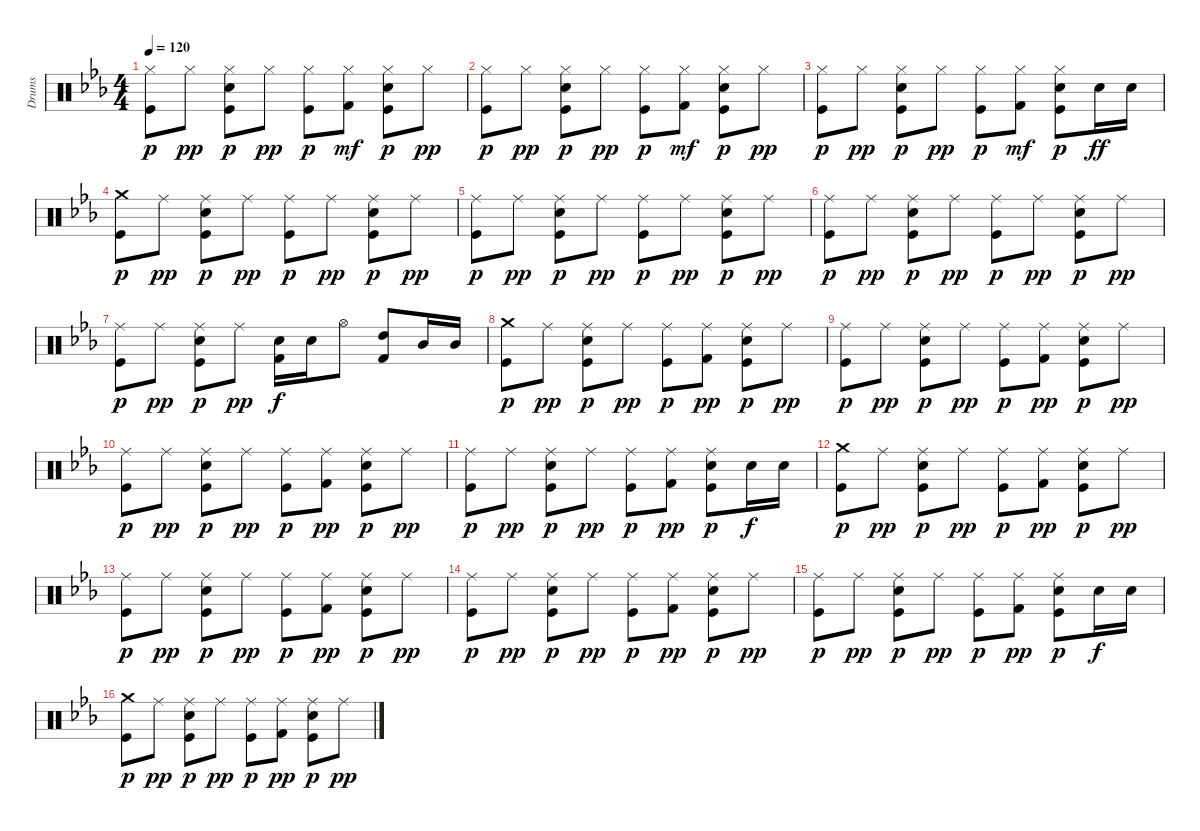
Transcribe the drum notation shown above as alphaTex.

\track ("Drums" "Drums") {instrument percussion}
\staff {score}
\articulation defaults
\ts (4 4)
\tempo 120
\clef neutral
\ks cminor
("Hi-Hat (closed)" "Kick (hit)").8{dy p} "Hi-Hat (closed)".8{dy pp} ("Hi-Hat (closed)" "Electric Snare (hit)" "Kick (hit)").8{dy p} "Hi-Hat (closed)".8{dy pp} ("Hi-Hat (closed)" "Kick (hit)").8{dy p} ("Hi-Hat (closed)" "Kick (hit) 2").8{dy mf} ("Hi-Hat (closed)" "Electric Snare (hit)" "Kick (hit)").8{dy p} "Hi-Hat (closed)".8{dy pp} |
("Hi-Hat (closed)" "Kick (hit)").8{dy p} "Hi-Hat (closed)".8{dy pp} ("Hi-Hat (closed)" "Electric Snare (hit)" "Kick (hit)").8{dy p} "Hi-Hat (closed)".8{dy pp} ("Hi-Hat (closed)" "Kick (hit)").8{dy p} ("Hi-Hat (closed)" "Kick (hit) 2").8{dy mf} ("Hi-Hat (closed)" "Electric Snare (hit)" "Kick (hit)").8{dy p} "Hi-Hat (closed)".8{dy pp} |
("Hi-Hat (closed)" "Kick (hit)").8{dy p} "Hi-Hat (closed)".8{dy pp} ("Hi-Hat (closed)" "Electric Snare (hit)" "Kick (hit)").8{dy p} "Hi-Hat (closed)".8{dy pp} ("Hi-Hat (closed)" "Kick (hit)").8{dy p} ("Hi-Hat (closed)" "Kick (hit) 2").8{dy mf} ("Hi-Hat (closed)" "Electric Snare (hit)" "Kick (hit)").8{dy p} "Electric Snare (hit)".16{dy ff} "Electric Snare (hit)".16 |
("Crash medium (hit)" "Kick (hit)").8{dy p} "Ride (middle)".8{dy pp} ("Ride (middle)" "Electric Snare (hit)" "Kick (hit)").8{dy p} "Ride (middle)".8{dy pp} ("Ride (middle)" "Kick (hit)").8{dy p} "Ride (middle)".8{dy pp} ("Ride (middle)" "Electric Snare (hit)" "Kick (hit)").8{dy p} "Ride (middle)".8{dy pp} |
("Ride (middle)" "Kick (hit)").8{dy p} "Ride (middle)".8{dy pp} ("Ride (middle)" "Electric Snare (hit)" "Kick (hit)").8{dy p} "Ride (middle)".8{dy pp} ("Ride (middle)" "Kick (hit)").8{dy p} "Ride (middle)".8{dy pp} ("Ride (middle)" "Electric Snare (hit)" "Kick (hit)").8{dy p} "Ride (middle)".8{dy pp} |
("Ride (middle)" "Kick (hit)").8{dy p} "Ride (middle)".8{dy pp} ("Ride (middle)" "Electric Snare (hit)" "Kick (hit)").8{dy p} "Ride (middle)".8{dy pp} ("Ride (middle)" "Kick (hit)").8{dy p} "Ride (middle)".8{dy pp} ("Ride (middle)" "Electric Snare (hit)" "Kick (hit)").8{dy p} "Ride (middle)".8{dy pp} |
("Ride (middle)" "Kick (hit)").8{dy p} "Ride (middle)".8{dy pp} ("Ride (middle)" "Electric Snare (hit)" "Kick (hit)").8{dy p} "Ride (middle)".8{dy pp} ("Electric Snare (hit)" "Kick (hit) 2").16{dy f} "Electric Snare (hit)".16 "Hi-Hat (open)".8 ("High Tom (hit)" "Kick (hit) 2").8 "Mid Tom (hit)".16 "Mid Tom (hit)".16 |
("Crash medium (hit)" "Kick (hit)").8{dy p} "Ride (middle)".8{dy pp} ("Ride (middle)" "Electric Snare (hit)" "Kick (hit)").8{dy p} "Ride (middle)".8{dy pp} ("Ride (middle)" "Kick (hit)").8{dy p} ("Kick (hit) 2" "Ride (middle)").8{dy pp} ("Ride (middle)" "Electric Snare (hit)" "Kick (hit)").8{dy p} "Ride (middle)".8{dy pp} |
("Ride (middle)" "Kick (hit)").8{dy p} "Ride (middle)".8{dy pp} ("Ride (middle)" "Electric Snare (hit)" "Kick (hit)").8{dy p} "Ride (middle)".8{dy pp} ("Ride (middle)" "Kick (hit)").8{dy p} ("Kick (hit) 2" "Ride (middle)").8{dy pp} ("Ride (middle)" "Electric Snare (hit)" "Kick (hit)").8{dy p} "Ride (middle)".8{dy pp} |
("Ride (middle)" "Kick (hit)").8{dy p} "Ride (middle)".8{dy pp} ("Ride (middle)" "Electric Snare (hit)" "Kick (hit)").8{dy p} "Ride (middle)".8{dy pp} ("Ride (middle)" "Kick (hit)").8{dy p} ("Kick (hit) 2" "Ride (middle)").8{dy pp} ("Ride (middle)" "Electric Snare (hit)" "Kick (hit)").8{dy p} "Ride (middle)".8{dy pp} |
("Ride (middle)" "Kick (hit)").8{dy p} "Ride (middle)".8{dy pp} ("Ride (middle)" "Electric Snare (hit)" "Kick (hit)").8{dy p} "Ride (middle)".8{dy pp} ("Ride (middle)" "Kick (hit)").8{dy p} ("Kick (hit) 2" "Ride (middle)").8{dy pp} ("Ride (middle)" "Electric Snare (hit)" "Kick (hit)").8{dy p} "Electric Snare (hit)".16{dy f} "Electric Snare (hit)".16 |
("Crash medium (hit)" "Kick (hit)").8{dy p} "Ride (middle)".8{dy pp} ("Ride (middle)" "Electric Snare (hit)" "Kick (hit)").8{dy p} "Ride (middle)".8{dy pp} ("Ride (middle)" "Kick (hit)").8{dy p} ("Kick (hit) 2" "Ride (middle)").8{dy pp} ("Ride (middle)" "Electric Snare (hit)" "Kick (hit)").8{dy p} "Ride (middle)".8{dy pp} |
("Ride (middle)" "Kick (hit)").8{dy p} "Ride (middle)".8{dy pp} ("Ride (middle)" "Electric Snare (hit)" "Kick (hit)").8{dy p} "Ride (middle)".8{dy pp} ("Ride (middle)" "Kick (hit)").8{dy p} ("Kick (hit) 2" "Ride (middle)").8{dy pp} ("Ride (middle)" "Electric Snare (hit)" "Kick (hit)").8{dy p} "Ride (middle)".8{dy pp} |
("Ride (middle)" "Kick (hit)").8{dy p} "Ride (middle)".8{dy pp} ("Ride (middle)" "Electric Snare (hit)" "Kick (hit)").8{dy p} "Ride (middle)".8{dy pp} ("Ride (middle)" "Kick (hit)").8{dy p} ("Kick (hit) 2" "Ride (middle)").8{dy pp} ("Ride (middle)" "Electric Snare (hit)" "Kick (hit)").8{dy p} "Ride (middle)".8{dy pp} |
("Ride (middle)" "Kick (hit)").8{dy p} "Ride (middle)".8{dy pp} ("Ride (middle)" "Electric Snare (hit)" "Kick (hit)").8{dy p} "Ride (middle)".8{dy pp} ("Ride (middle)" "Kick (hit)").8{dy p} ("Kick (hit) 2" "Ride (middle)").8{dy pp} ("Ride (middle)" "Electric Snare (hit)" "Kick (hit)").8{dy p} "Electric Snare (hit)".16{dy f} "Electric Snare (hit)".16 |
("Crash medium (hit)" "Kick (hit)").8{dy p} "Ride (middle)".8{dy pp} ("Ride (middle)" "Electric Snare (hit)" "Kick (hit)").8{dy p} "Ride (middle)".8{dy pp} ("Ride (middle)" "Kick (hit)").8{dy p} ("Kick (hit) 2" "Ride (middle)").8{dy pp} ("Ride (middle)" "Electric Snare (hit)" "Kick (hit)").8{dy p} "Ride (middle)".8{dy pp}
